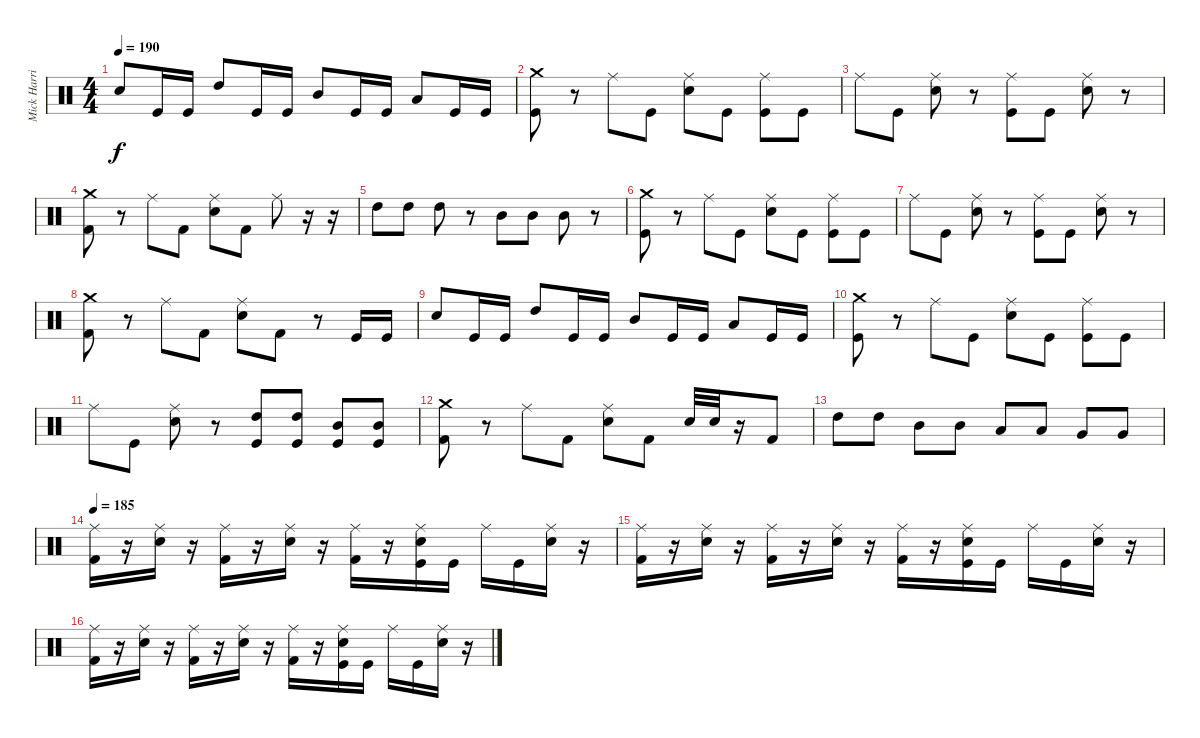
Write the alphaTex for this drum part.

\track ("Mick Harris (Drums)" "Mick Harri") {instrument percussion}
\staff {score}
\articulation defaults
\ts (4 4)
\tempo 190
\clef neutral
\ks c "Electric Snare (hit)".8{dy f} "Kick (hit)".16 "Kick (hit)".16 "High Tom (hit)".8 "Kick (hit)".16 "Kick (hit)".16 "Mid Tom (hit)".8 "Kick (hit)".16 "Kick (hit)".16 "Low Tom (hit)".8 "Kick (hit)".16 "Kick (hit)".16
|
("Kick (hit)" "Crash medium (hit)").8 r.8 "Ride (middle)".8 "Kick (hit)".8 ("Electric Snare (hit)" "Ride (middle)").8 "Kick (hit)".8 ("Kick (hit)" "Ride (middle)").8 "Kick (hit)".8 |
"Ride (middle)".8 "Kick (hit)".8 ("Electric Snare (hit)" "Ride (middle)").8 r.8 ("Kick (hit)" "Ride (middle)").8 "Kick (hit)".8 ("Electric Snare (hit)" "Ride (middle)").8 r.8 |
("Kick (hit) 2" "Crash medium (hit)").8 r.8 "Ride (middle)".8 "Kick (hit) 2".8 ("Electric Snare (hit)" "Ride (middle)").8 "Kick (hit) 2".8 "Ride (middle)".8 r.16 r.16 |
"High Tom (hit)".8 "High Tom (hit)".8 "High Tom (hit)".8 r.8 "Mid Tom (hit)".8 "Mid Tom (hit)".8 "Mid Tom (hit)".8 r.8 |
("Kick (hit)" "Crash medium (hit)").8 r.8 "Ride (middle)".8 "Kick (hit)".8 ("Electric Snare (hit)" "Ride (middle)").8 "Kick (hit)".8 ("Kick (hit)" "Ride (middle)").8 "Kick (hit)".8 |
"Ride (middle)".8 "Kick (hit)".8 ("Electric Snare (hit)" "Ride (middle)").8 r.8 ("Kick (hit)" "Ride (middle)").8 "Kick (hit)".8 ("Electric Snare (hit)" "Ride (middle)").8 r.8 |
("Kick (hit) 2" "Crash medium (hit)").8 r.8 "Ride (middle)".8 "Kick (hit) 2".8 ("Electric Snare (hit)" "Ride (middle)").8 "Kick (hit) 2".8 r.8 "Kick (hit)".16 "Kick (hit)".16 |
"Electric Snare (hit)".8 "Kick (hit)".16 "Kick (hit)".16 "High Tom (hit)".8 "Kick (hit)".16 "Kick (hit)".16 "Mid Tom (hit)".8 "Kick (hit)".16 "Kick (hit)".16 "Low Tom (hit)".8 "Kick (hit)".16 "Kick (hit)".16 |
("Kick (hit)" "Crash medium (hit)").8 r.8 "Ride (middle)".8 "Kick (hit)".8 ("Electric Snare (hit)" "Ride (middle)").8 "Kick (hit)".8 ("Kick (hit)" "Ride (middle)").8 "Kick (hit)".8 |
"Ride (middle)".8 "Kick (hit)".8 ("Electric Snare (hit)" "Ride (middle)").8 r.8 ("High Tom (hit)" "Kick (hit)").8 ("High Tom (hit)" "Kick (hit)").8 ("Mid Tom (hit)" "Kick (hit)").8 ("Mid Tom (hit)" "Kick (hit)").8 |
("Kick (hit) 2" "Crash medium (hit)").8 r.8 "Ride (middle)".8 "Kick (hit) 2".8 ("Electric Snare (hit)" "Ride (middle)").8 "Kick (hit) 2".8 "Electric Snare (hit)".32 "Electric Snare (hit)".32 r.16 "Kick (hit) 2".8 |
"High Tom (hit)".8 "High Tom (hit)".8 "Mid Tom (hit)".8 "Mid Tom (hit)".8 "Low Tom (hit)".8 "Low Tom (hit)".8 "Very Low Tom (hit)".8 "Very Low Tom (hit)".8 |
\tempo 185
("Kick (hit) 2" "Ride (middle)").16 r.16 ("Electric Snare (hit)" "Ride (middle)").16 r.16 ("Kick (hit) 2" "Ride (middle)").16 r.16 ("Electric Snare (hit)" "Ride (middle)").16 r.16 ("Kick (hit) 2" "Ride (middle)").16 r.16 ("Kick (hit)" "Electric Snare (hit)" "Ride (middle)").16 "Kick (hit)".16 "Ride (middle)".16 "Kick (hit)".16 ("Electric Snare (hit)" "Ride (middle)").16 r.16 |
("Kick (hit) 2" "Ride (middle)").16 r.16 ("Electric Snare (hit)" "Ride (middle)").16 r.16 ("Kick (hit) 2" "Ride (middle)").16 r.16 ("Electric Snare (hit)" "Ride (middle)").16 r.16 ("Kick (hit) 2" "Ride (middle)").16 r.16 ("Kick (hit)" "Electric Snare (hit)" "Ride (middle)").16 "Kick (hit)".16 "Ride (middle)".16 "Kick (hit)".16 ("Electric Snare (hit)" "Ride (middle)").16 r.16 |
("Kick (hit) 2" "Ride (middle)").16 r.16 ("Electric Snare (hit)" "Ride (middle)").16 r.16 ("Kick (hit) 2" "Ride (middle)").16 r.16 ("Electric Snare (hit)" "Ride (middle)").16 r.16 ("Kick (hit) 2" "Ride (middle)").16 r.16 ("Kick (hit)" "Electric Snare (hit)" "Ride (middle)").16 "Kick (hit)".16 "Ride (middle)".16 "Kick (hit)".16 ("Electric Snare (hit)" "Ride (middle)").16 r.16
